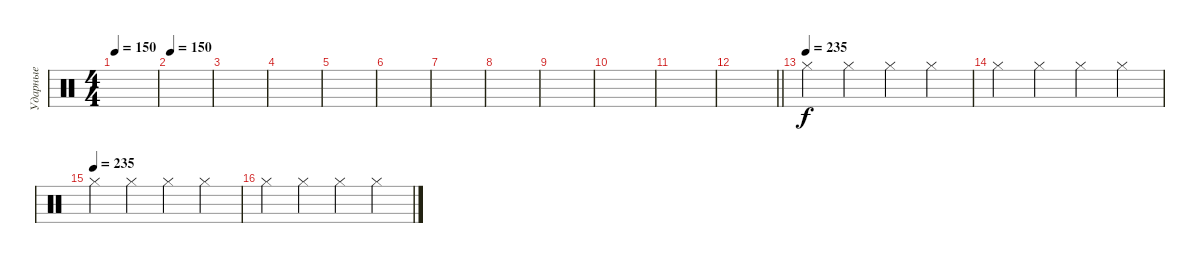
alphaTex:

\track ("Ударные" "Ударные") {instrument percussion}
\staff {score}
\articulation defaults
\ts (4 4)
\tempo 150
\clef neutral
\ks c
|
\tempo 150
|
|
|
|
|
|
|
|
|
|
\barLineRight lightlight
|
\tempo (235)
"Hi-Hat (closed)".4 "Hi-Hat (closed)".4 "Hi-Hat (closed)".4 "Hi-Hat (closed)".4 |
"Hi-Hat (closed)".4 "Hi-Hat (closed)".4 "Hi-Hat (closed)".4 "Hi-Hat (closed)".4 |
\tempo (235)
"Hi-Hat (closed)".4 "Hi-Hat (closed)".4 "Hi-Hat (closed)".4 "Hi-Hat (closed)".4 |
"Hi-Hat (closed)".4 "Hi-Hat (closed)".4 "Hi-Hat (closed)".4 "Hi-Hat (closed)".4
